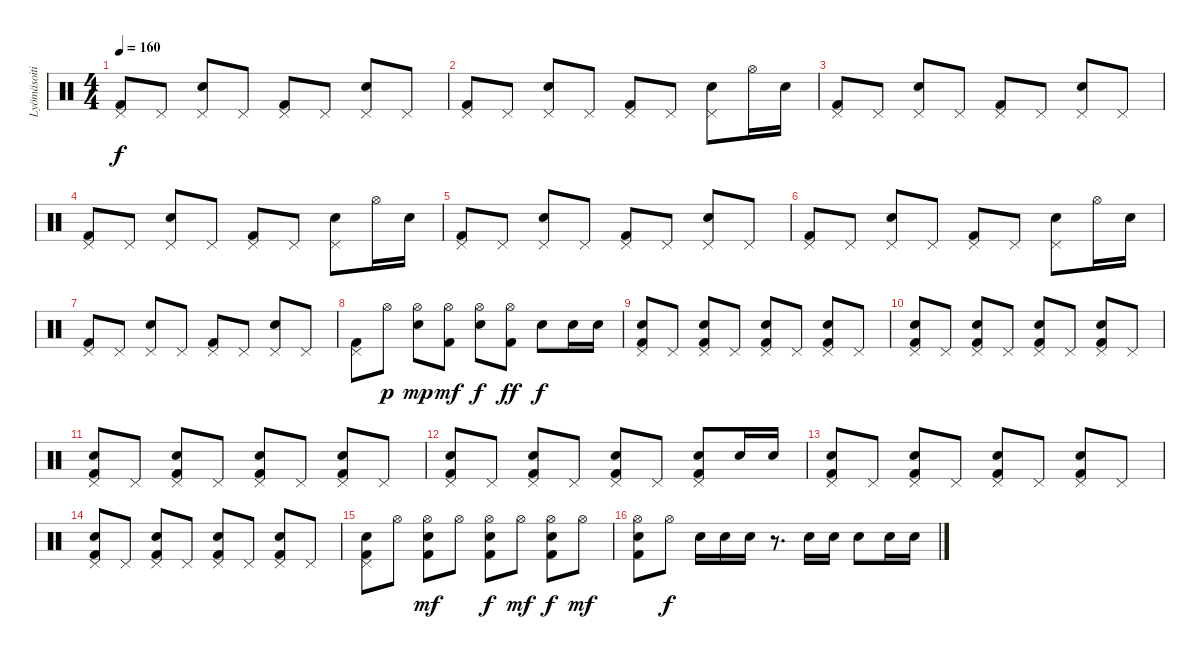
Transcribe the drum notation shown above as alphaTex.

\track ("Lyömäsoitin" "Lyömäsoiti") {instrument percussion}
\staff {score}
\articulation defaults
\ts (4 4)
\tempo 160
\clef neutral
\ks c
("Pedal Hi-Hat (hit)" "Kick (hit) 2").8{dy f} "Pedal Hi-Hat (hit)".8 ("Pedal Hi-Hat (hit)" "Electric Snare (hit)").8 "Pedal Hi-Hat (hit)".8 ("Pedal Hi-Hat (hit)" "Kick (hit) 2").8 "Pedal Hi-Hat (hit)".8 ("Pedal Hi-Hat (hit)" "Electric Snare (hit)").8 "Pedal Hi-Hat (hit)".8 |
("Pedal Hi-Hat (hit)" "Kick (hit) 2").8 "Pedal Hi-Hat (hit)".8 ("Pedal Hi-Hat (hit)" "Electric Snare (hit)").8 "Pedal Hi-Hat (hit)".8 ("Pedal Hi-Hat (hit)" "Kick (hit) 2").8 "Pedal Hi-Hat (hit)".8 ("Pedal Hi-Hat (hit)" "Electric Snare (hit)").8 "Hi-Hat (open)".16 "Electric Snare (hit)".16 |
("Pedal Hi-Hat (hit)" "Kick (hit) 2").8 "Pedal Hi-Hat (hit)".8 ("Pedal Hi-Hat (hit)" "Electric Snare (hit)").8 "Pedal Hi-Hat (hit)".8 ("Pedal Hi-Hat (hit)" "Kick (hit) 2").8 "Pedal Hi-Hat (hit)".8 ("Pedal Hi-Hat (hit)" "Electric Snare (hit)").8 "Pedal Hi-Hat (hit)".8 |
("Pedal Hi-Hat (hit)" "Kick (hit) 2").8 "Pedal Hi-Hat (hit)".8 ("Pedal Hi-Hat (hit)" "Electric Snare (hit)").8 "Pedal Hi-Hat (hit)".8 ("Pedal Hi-Hat (hit)" "Kick (hit) 2").8 "Pedal Hi-Hat (hit)".8 ("Pedal Hi-Hat (hit)" "Electric Snare (hit)").8 "Hi-Hat (open)".16 "Electric Snare (hit)".16 |
("Pedal Hi-Hat (hit)" "Kick (hit) 2").8 "Pedal Hi-Hat (hit)".8 ("Pedal Hi-Hat (hit)" "Electric Snare (hit)").8 "Pedal Hi-Hat (hit)".8 ("Pedal Hi-Hat (hit)" "Kick (hit) 2").8 "Pedal Hi-Hat (hit)".8 ("Pedal Hi-Hat (hit)" "Electric Snare (hit)").8 "Pedal Hi-Hat (hit)".8 |
("Pedal Hi-Hat (hit)" "Kick (hit) 2").8 "Pedal Hi-Hat (hit)".8 ("Pedal Hi-Hat (hit)" "Electric Snare (hit)").8 "Pedal Hi-Hat (hit)".8 ("Pedal Hi-Hat (hit)" "Kick (hit) 2").8 "Pedal Hi-Hat (hit)".8 ("Pedal Hi-Hat (hit)" "Electric Snare (hit)").8 "Hi-Hat (open)".16 "Electric Snare (hit)".16 |
("Pedal Hi-Hat (hit)" "Kick (hit) 2").8 "Pedal Hi-Hat (hit)".8 ("Pedal Hi-Hat (hit)" "Electric Snare (hit)").8 "Pedal Hi-Hat (hit)".8 ("Pedal Hi-Hat (hit)" "Kick (hit) 2").8 "Pedal Hi-Hat (hit)".8 ("Pedal Hi-Hat (hit)" "Electric Snare (hit)").8 "Pedal Hi-Hat (hit)".8 |
("Pedal Hi-Hat (hit)" "Kick (hit) 2").8 "Hi-Hat (open)".8{dy p} ("Hi-Hat (open)" "Electric Snare (hit)").8{dy mp} ("Hi-Hat (open)" "Kick (hit) 2").8{dy mf} ("Hi-Hat (open)" "Electric Snare (hit)").8{dy f} ("Hi-Hat (open)" "Kick (hit) 2").8{dy ff} "Electric Snare (hit)".8{dy f} "Electric Snare (hit)".16 "Electric Snare (hit)".16 |
("Pedal Hi-Hat (hit)" "Electric Snare (hit)" "Kick (hit) 2").8 "Pedal Hi-Hat (hit)".8 ("Pedal Hi-Hat (hit)" "Electric Snare (hit)" "Kick (hit) 2").8 "Pedal Hi-Hat (hit)".8 ("Pedal Hi-Hat (hit)" "Electric Snare (hit)" "Kick (hit) 2").8 "Pedal Hi-Hat (hit)".8 ("Pedal Hi-Hat (hit)" "Electric Snare (hit)" "Kick (hit) 2").8 "Pedal Hi-Hat (hit)".8 |
("Pedal Hi-Hat (hit)" "Electric Snare (hit)" "Kick (hit) 2").8 "Pedal Hi-Hat (hit)".8 ("Pedal Hi-Hat (hit)" "Electric Snare (hit)" "Kick (hit) 2").8 "Pedal Hi-Hat (hit)".8 ("Pedal Hi-Hat (hit)" "Electric Snare (hit)" "Kick (hit) 2").8 "Pedal Hi-Hat (hit)".8 ("Pedal Hi-Hat (hit)" "Electric Snare (hit)" "Kick (hit) 2").8 "Pedal Hi-Hat (hit)".8 |
("Pedal Hi-Hat (hit)" "Electric Snare (hit)" "Kick (hit) 2").8 "Pedal Hi-Hat (hit)".8 ("Pedal Hi-Hat (hit)" "Electric Snare (hit)" "Kick (hit) 2").8 "Pedal Hi-Hat (hit)".8 ("Pedal Hi-Hat (hit)" "Electric Snare (hit)" "Kick (hit) 2").8 "Pedal Hi-Hat (hit)".8 ("Pedal Hi-Hat (hit)" "Electric Snare (hit)" "Kick (hit) 2").8 "Pedal Hi-Hat (hit)".8 |
("Pedal Hi-Hat (hit)" "Electric Snare (hit)" "Kick (hit) 2").8 "Pedal Hi-Hat (hit)".8 ("Pedal Hi-Hat (hit)" "Electric Snare (hit)" "Kick (hit) 2").8 "Pedal Hi-Hat (hit)".8 ("Pedal Hi-Hat (hit)" "Electric Snare (hit)" "Kick (hit) 2").8 "Pedal Hi-Hat (hit)".8 ("Pedal Hi-Hat (hit)" "Electric Snare (hit)" "Kick (hit) 2").8 "Electric Snare (hit)".16 "Electric Snare (hit)".16 |
("Pedal Hi-Hat (hit)" "Electric Snare (hit)" "Kick (hit) 2").8 "Pedal Hi-Hat (hit)".8 ("Pedal Hi-Hat (hit)" "Electric Snare (hit)" "Kick (hit) 2").8 "Pedal Hi-Hat (hit)".8 ("Pedal Hi-Hat (hit)" "Electric Snare (hit)" "Kick (hit) 2").8 "Pedal Hi-Hat (hit)".8 ("Pedal Hi-Hat (hit)" "Electric Snare (hit)" "Kick (hit) 2").8 "Pedal Hi-Hat (hit)".8 |
("Pedal Hi-Hat (hit)" "Electric Snare (hit)" "Kick (hit) 2").8 "Pedal Hi-Hat (hit)".8 ("Pedal Hi-Hat (hit)" "Electric Snare (hit)" "Kick (hit) 2").8 "Pedal Hi-Hat (hit)".8 ("Pedal Hi-Hat (hit)" "Electric Snare (hit)" "Kick (hit) 2").8 "Pedal Hi-Hat (hit)".8 ("Pedal Hi-Hat (hit)" "Electric Snare (hit)" "Kick (hit) 2").8 "Pedal Hi-Hat (hit)".8 |
("Pedal Hi-Hat (hit)" "Electric Snare (hit)" "Kick (hit) 2").8 "Hi-Hat (open)".8 ("Hi-Hat (open)" "Electric Snare (hit)" "Kick (hit) 2").8{dy mf} "Hi-Hat (open)".8 ("Hi-Hat (open)" "Electric Snare (hit)" "Kick (hit) 2").8{dy f} "Hi-Hat (open)".8{dy mf} ("Hi-Hat (open)" "Electric Snare (hit)" "Kick (hit) 2").8{dy f} "Hi-Hat (open)".8{dy mf} |
("Hi-Hat (open)" "Electric Snare (hit)" "Kick (hit) 2").8 "Hi-Hat (open)".8{dy f} "Electric Snare (hit)".16 "Electric Snare (hit)".16 "Electric Snare (hit)".16 r.8{d} "Electric Snare (hit)".16 "Electric Snare (hit)".16 "Electric Snare (hit)".8 "Electric Snare (hit)".16 "Electric Snare (hit)".16
